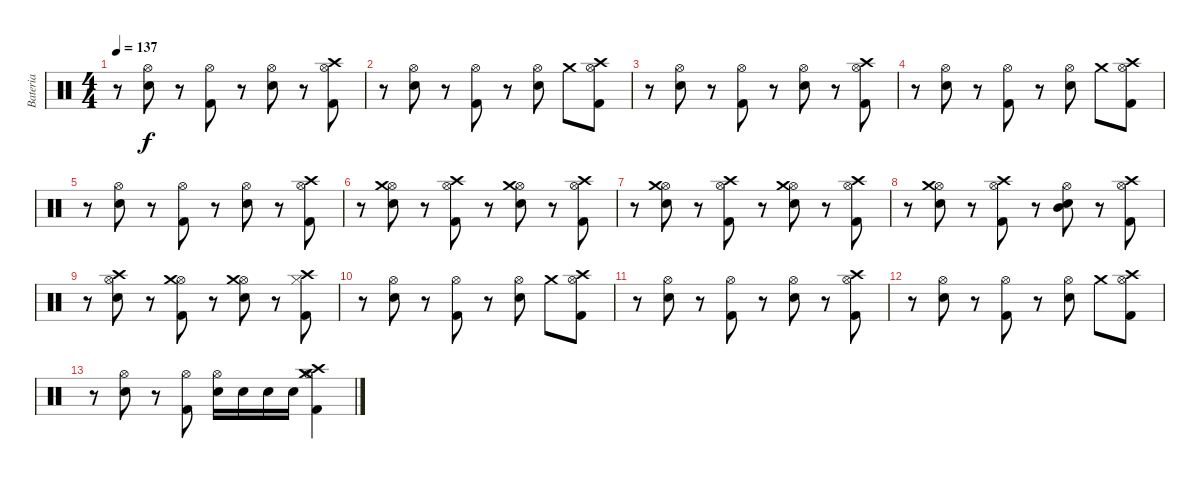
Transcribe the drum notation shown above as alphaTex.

\track ("Bateria" "Bateria") {instrument percussion}
\staff {score}
\articulation defaults
\ts (4 4)
\tempo 137
\clef neutral
\ks c
r.8{dy f} ("Snare (hit) 2" "Hi-Hat (open)").8 r.8 ("Kick (hit) 2" "Hi-Hat (open)").8 r.8 ("Snare (hit) 2" "Hi-Hat (open)").8 r.8 ("Kick (hit) 2" "Hi-Hat (open)" "Crash high (hit)").8 |
r.8 ("Snare (hit) 2" "Hi-Hat (open)").8 r.8 ("Kick (hit) 2" "Hi-Hat (open)").8 r.8 ("Snare (hit) 2" "Hi-Hat (open)").8 "Crash medium (hit)".8 ("Kick (hit) 2" "Hi-Hat (open)" "Crash high (hit)").8 |
r.8 ("Snare (hit) 2" "Hi-Hat (open)").8 r.8 ("Kick (hit) 2" "Hi-Hat (open)").8 r.8 ("Snare (hit) 2" "Hi-Hat (open)").8 r.8 ("Kick (hit) 2" "Hi-Hat (open)" "Crash high (hit)").8 |
r.8 ("Snare (hit) 2" "Hi-Hat (open)").8 r.8 ("Kick (hit) 2" "Hi-Hat (open)").8 r.8 ("Snare (hit) 2" "Hi-Hat (open)").8 "Crash medium (hit)".8 ("Kick (hit) 2" "Hi-Hat (open)" "Crash high (hit)").8 |
r.8 ("Snare (hit) 2" "Hi-Hat (open)").8 r.8 ("Kick (hit) 2" "Hi-Hat (open)").8 r.8 ("Snare (hit) 2" "Hi-Hat (open)").8 r.8 ("Kick (hit) 2" "Hi-Hat (open)" "Crash high (hit)").8 |
r.8 ("Snare (hit) 2" "Hi-Hat (open)" "Crash medium (hit)").8 r.8 ("Kick (hit) 2" "Hi-Hat (open)" "Crash high (hit)").8 r.8 ("Snare (hit) 2" "Hi-Hat (open)" "Crash medium (hit)").8 r.8 ("Kick (hit) 2" "Hi-Hat (open)" "Crash high (hit)").8 |
r.8 ("Snare (hit) 2" "Hi-Hat (open)" "Crash medium (hit)").8 r.8 ("Kick (hit) 2" "Hi-Hat (open)" "Crash high (hit)").8 r.8 ("Snare (hit) 2" "Hi-Hat (open)" "Crash medium (hit)").8 r.8 ("Kick (hit) 2" "Hi-Hat (open)" "Crash high (hit)").8 |
r.8 ("Snare (hit) 2" "Hi-Hat (open)" "Crash medium (hit)").8 r.8 ("Kick (hit) 2" "Hi-Hat (open)" "Crash high (hit)").8 r.8 ("Snare (hit) 2" "Hi-Hat (open)" "Mid Tom (hit)").8 r.8 ("Kick (hit) 2" "Hi-Hat (open)" "Crash high (hit)").8 |
r.8 ("Snare (hit) 2" "Hi-Hat (open)" "Crash high (hit)").8 r.8 ("Kick (hit) 2" "Hi-Hat (open)" "Crash medium (hit)").8 r.8 ("Snare (hit) 2" "Hi-Hat (open)" "Crash medium (hit)").8 r.8 ("Kick (hit) 2" "Hi-Hat (closed)" "Crash high (hit)").8 |
r.8 ("Snare (hit) 2" "Hi-Hat (open)").8 r.8 ("Kick (hit) 2" "Hi-Hat (open)").8 r.8 ("Snare (hit) 2" "Hi-Hat (open)").8 "Crash medium (hit)".8 ("Kick (hit) 2" "Hi-Hat (open)" "Crash high (hit)").8 |
r.8 ("Snare (hit) 2" "Hi-Hat (open)").8 r.8 ("Kick (hit) 2" "Hi-Hat (open)").8 r.8 ("Snare (hit) 2" "Hi-Hat (open)").8 r.8 ("Kick (hit) 2" "Hi-Hat (open)" "Crash high (hit)").8 |
r.8 ("Snare (hit) 2" "Hi-Hat (open)").8 r.8 ("Kick (hit) 2" "Hi-Hat (open)").8 r.8 ("Snare (hit) 2" "Hi-Hat (open)").8 "Crash medium (hit)".8 ("Kick (hit) 2" "Hi-Hat (open)" "Crash high (hit)").8 |
r.8 ("Snare (hit) 2" "Hi-Hat (open)").8 r.8 ("Kick (hit) 2" "Hi-Hat (open)").8 ("Snare (hit) 2" "Hi-Hat (open)").16 "Snare (hit) 2".16 "Snare (hit) 2".16 "Snare (hit) 2".16 ("Kick (hit) 2" "Hi-Hat (open)" "Crash high (hit)" "Crash medium (hit)").4
